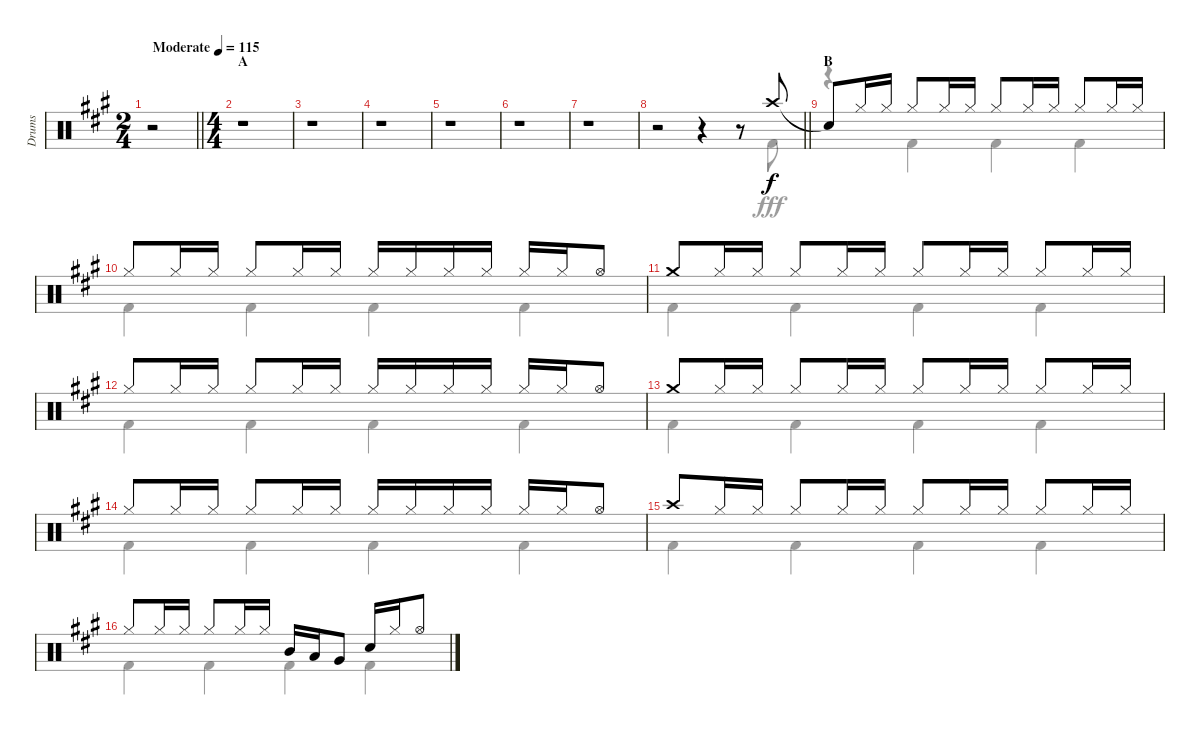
\track ("Drums" "Drums") {instrument percussion}
\staff {score}
\articulation defaults
\voice
\ts (2 4)
\tempo (115 "Moderate")
\clef neutral
\barLineRight lightlight
\ks a
r.2{dy f} |
\ts (4 4)
\section ("" "A")
r.1 |
r.1 |
r.1 |
r.1 |
r.1 |
r.1 |
\barLineRight lightlight
r.2 r.4 r.8 "Crash high (hit)".8 |
\section ("" "B")
"Snare (hit)"{t}.8 "Hi-Hat (closed)".16 "Hi-Hat (closed)".16 "Hi-Hat (closed)".8 "Hi-Hat (closed)".16 "Hi-Hat (closed)".16 "Hi-Hat (closed)".8 "Hi-Hat (closed)".16 "Hi-Hat (closed)".16 "Hi-Hat (closed)".8 "Hi-Hat (closed)".16 "Hi-Hat (closed)".16 |
"Hi-Hat (closed)".8 "Hi-Hat (closed)".16 "Hi-Hat (closed)".16 "Hi-Hat (closed)".8 "Hi-Hat (closed)".16 "Hi-Hat (closed)".16 "Hi-Hat (closed)".16 "Hi-Hat (closed)".16 "Hi-Hat (closed)".16 "Hi-Hat (closed)".16 "Hi-Hat (closed)".16 "Hi-Hat (closed)".16 "Hi-Hat (open)".8 |
"Crash medium (hit)".8 "Hi-Hat (closed)".16 "Hi-Hat (closed)".16 "Hi-Hat (closed)".8 "Hi-Hat (closed)".16 "Hi-Hat (closed)".16 "Hi-Hat (closed)".8 "Hi-Hat (closed)".16 "Hi-Hat (closed)".16 "Hi-Hat (closed)".8 "Hi-Hat (closed)".16 "Hi-Hat (closed)".16 |
"Hi-Hat (closed)".8 "Hi-Hat (closed)".16 "Hi-Hat (closed)".16 "Hi-Hat (closed)".8 "Hi-Hat (closed)".16 "Hi-Hat (closed)".16 "Hi-Hat (closed)".16 "Hi-Hat (closed)".16 "Hi-Hat (closed)".16 "Hi-Hat (closed)".16 "Hi-Hat (closed)".16 "Hi-Hat (closed)".16 "Hi-Hat (open)".8 |
"Crash medium (hit)".8 "Hi-Hat (closed)".16 "Hi-Hat (closed)".16 "Hi-Hat (closed)".8 "Hi-Hat (closed)".16 "Hi-Hat (closed)".16 "Hi-Hat (closed)".8 "Hi-Hat (closed)".16 "Hi-Hat (closed)".16 "Hi-Hat (closed)".8 "Hi-Hat (closed)".16 "Hi-Hat (closed)".16 |
"Hi-Hat (closed)".8 "Hi-Hat (closed)".16 "Hi-Hat (closed)".16 "Hi-Hat (closed)".8 "Hi-Hat (closed)".16 "Hi-Hat (closed)".16 "Hi-Hat (closed)".16 "Hi-Hat (closed)".16 "Hi-Hat (closed)".16 "Hi-Hat (closed)".16 "Hi-Hat (closed)".16 "Hi-Hat (closed)".16 "Hi-Hat (open)".8 |
"Crash high (hit)".8 "Hi-Hat (closed)".16 "Hi-Hat (closed)".16 "Hi-Hat (closed)".8 "Hi-Hat (closed)".16 "Hi-Hat (closed)".16 "Hi-Hat (closed)".8 "Hi-Hat (closed)".16 "Hi-Hat (closed)".16 "Hi-Hat (closed)".8 "Hi-Hat (closed)".16 "Hi-Hat (closed)".16 |
"Hi-Hat (closed)".8 "Hi-Hat (closed)".16 "Hi-Hat (closed)".16 "Hi-Hat (closed)".8 "Hi-Hat (closed)".16 "Hi-Hat (closed)".16 "Mid Tom (hit)".16 "Low Tom (hit)".16 "Very Low Tom (hit)".8 "Snare (hit) 2".16 "Hi-Hat (closed)".16 "Hi-Hat (open)".8
\voice
\clef neutral
\ottava regular
\simile none
\barLineRight lightlight
\ks a
r.2{dy fff} |
r.1 |
r.1 |
r.1 |
r.1 |
r.1 |
r.1 |
\barLineRight lightlight
r.2 r.4 r.8 "Kick (hit) 2".8 |
r.4 "Kick (hit) 2".4 "Kick (hit) 2".4 "Kick (hit) 2".4 |
"Kick (hit) 2".4 "Kick (hit) 2".4 "Kick (hit) 2".4 "Kick (hit) 2".4 |
"Kick (hit) 2".4 "Kick (hit) 2".4 "Kick (hit) 2".4 "Kick (hit) 2".4 |
"Kick (hit) 2".4 "Kick (hit) 2".4 "Kick (hit) 2".4 "Kick (hit) 2".4 |
"Kick (hit) 2".4 "Kick (hit) 2".4 "Kick (hit) 2".4 "Kick (hit) 2".4 |
"Kick (hit) 2".4 "Kick (hit) 2".4 "Kick (hit) 2".4 "Kick (hit) 2".4 |
"Kick (hit) 2".4 "Kick (hit) 2".4 "Kick (hit) 2".4 "Kick (hit) 2".4 |
"Kick (hit) 2".4 "Kick (hit) 2".4 "Kick (hit) 2".4 "Kick (hit) 2".4
